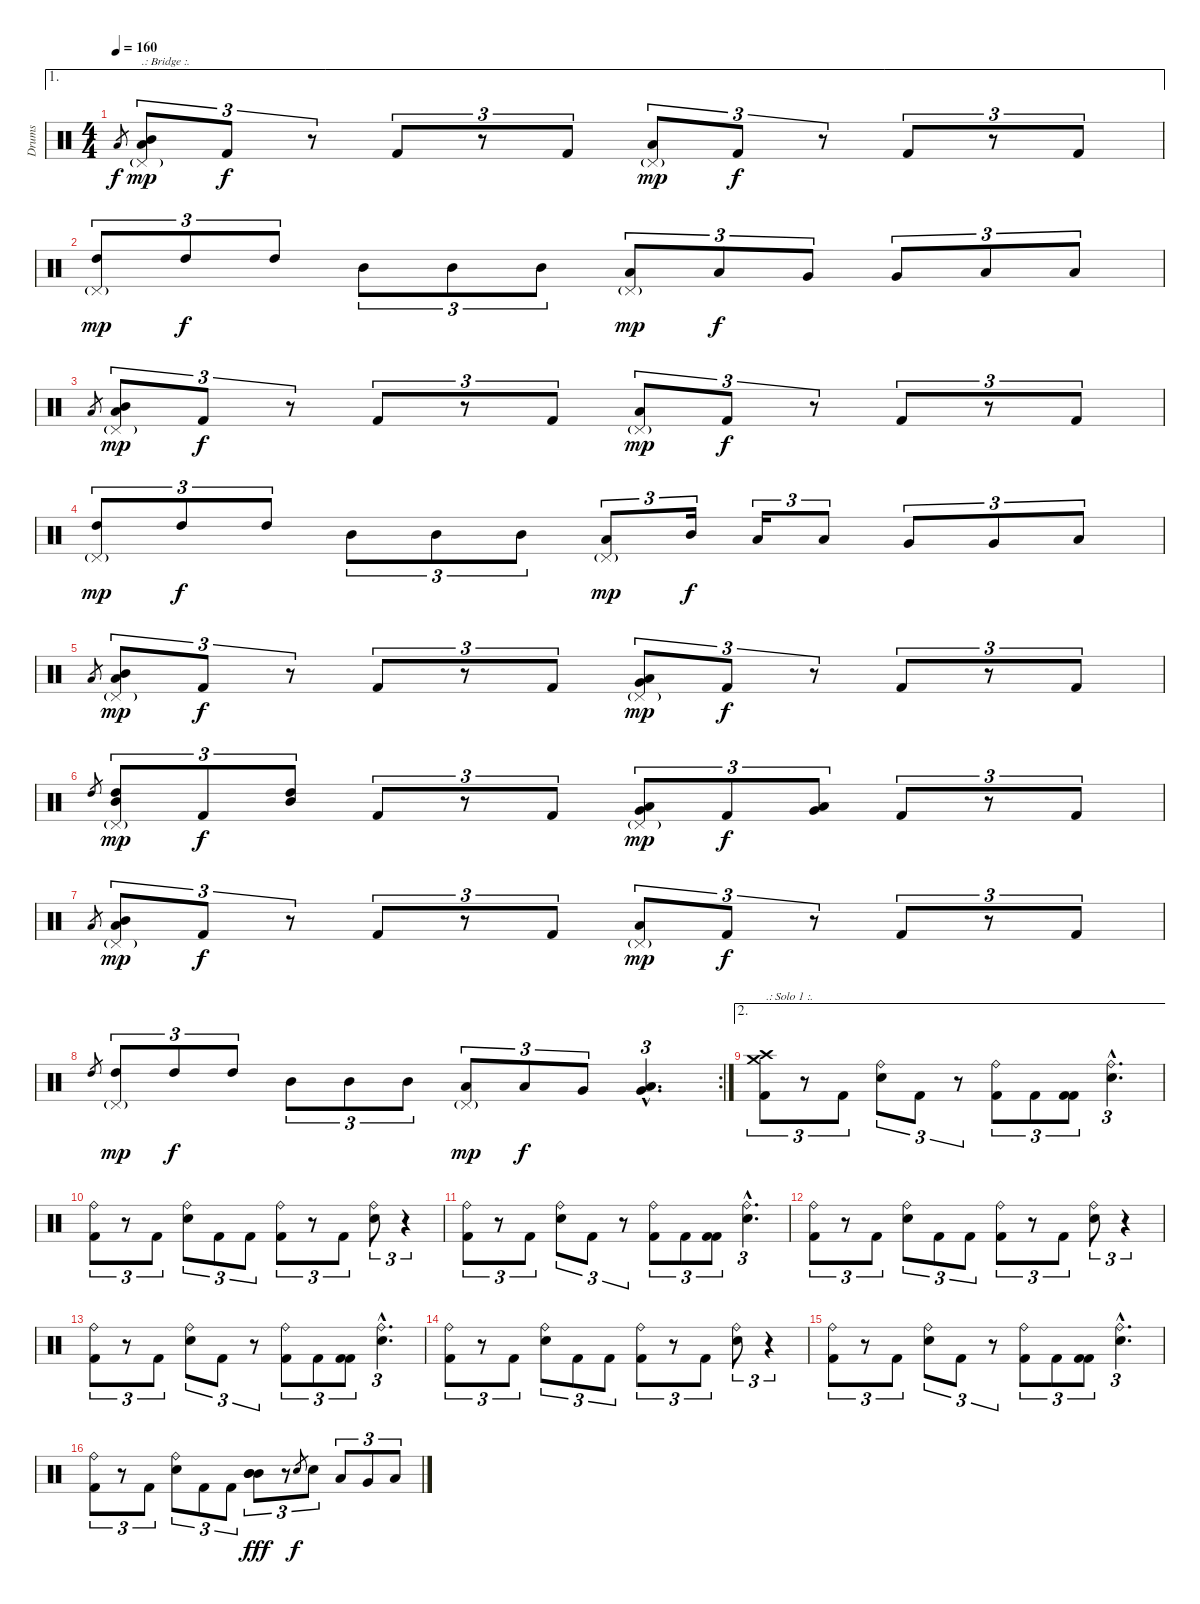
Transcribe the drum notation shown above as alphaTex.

\track ("Drums" "Drums") {instrument percussion}
\staff {score}
\articulation defaults
\ae 1
\ts (4 4)
\tempo 160
\clef neutral
\ks c "Low Tom (hit)".8{gr dy f}
("Mid Tom (hit)" "Low Tom (hit)" "Pedal Hi-Hat (hit)"{g}).8{tu (3 2) txt ".: Bridge :." dy mp} "Kick (hit) 2".8{tu (3 2) dy f} r.8{tu (3 2)} "Kick (hit) 2".8{tu (3 2)} r.8{tu (3 2)} "Kick (hit) 2".8{tu (3 2)} ("Low Tom (hit)" "Pedal Hi-Hat (hit)"{g}).8{tu (3 2) dy mp} "Kick (hit) 2".8{tu (3 2) dy f} r.8{tu (3 2)} "Kick (hit) 2".8{tu (3 2)} r.8{tu (3 2)} "Kick (hit) 2".8{tu (3 2)} |
("High Tom (hit)" "Pedal Hi-Hat (hit)"{g}).8{tu (3 2) dy mp} "High Tom (hit)".8{tu (3 2) dy f} "High Tom (hit)".8{tu (3 2)} "Mid Tom (hit)".8{tu (3 2)} "Mid Tom (hit)".8{tu (3 2)} "Mid Tom (hit)".8{tu (3 2)} ("Low Tom (hit)" "Pedal Hi-Hat (hit)"{g}).8{tu (3 2) dy mp} "Low Tom (hit)".8{tu (3 2) dy f} "Very Low Tom (hit)".8{tu (3 2)} "Very Low Tom (hit)".8{tu (3 2)} "Low Floor Tom (hit)".8{tu (3 2)} "Low Floor Tom (hit)".8{tu (3 2)} |
"Low Tom (hit)".8{gr} ("Mid Tom (hit)" "Low Tom (hit)" "Pedal Hi-Hat (hit)"{g}).8{tu (3 2) dy mp} "Kick (hit) 2".8{tu (3 2) dy f} r.8{tu (3 2)} "Kick (hit) 2".8{tu (3 2)} r.8{tu (3 2)} "Kick (hit) 2".8{tu (3 2)} ("Low Tom (hit)" "Pedal Hi-Hat (hit)"{g}).8{tu (3 2) dy mp} "Kick (hit) 2".8{tu (3 2) dy f} r.8{tu (3 2)} "Kick (hit) 2".8{tu (3 2)} r.8{tu (3 2)} "Kick (hit) 2".8{tu (3 2)} |
("High Tom (hit)" "Pedal Hi-Hat (hit)"{g}).8{tu (3 2) dy mp} "High Tom (hit)".8{tu (3 2) dy f} "High Tom (hit)".8{tu (3 2)} "Mid Tom (hit)".8{tu (3 2)} "Mid Tom (hit)".8{tu (3 2)} "Mid Tom (hit)".8{tu (3 2)} ("Low Tom (hit)" "Pedal Hi-Hat (hit)"{g}).8{tu (3 2) dy mp} "Mid Tom (hit)".16{tu (3 2) dy f} "Low Tom (hit)".16{tu (3 2)} "Low Tom (hit)".8{tu (3 2)} "Very Low Tom (hit)".8{tu (3 2)} "Very Low Tom (hit)".8{tu (3 2)} "Low Floor Tom (hit)".8{tu (3 2)} |
"Low Tom (hit)".8{gr} ("Mid Tom (hit)" "Low Tom (hit)" "Pedal Hi-Hat (hit)"{g}).8{tu (3 2) dy mp} "Kick (hit) 2".8{tu (3 2) dy f} r.8{tu (3 2)} "Kick (hit) 2".8{tu (3 2)} r.8{tu (3 2)} "Kick (hit) 2".8{tu (3 2)} ("Low Tom (hit)" "Very Low Tom (hit)" "Pedal Hi-Hat (hit)"{g}).8{tu (3 2) dy mp} "Kick (hit) 2".8{tu (3 2) dy f} r.8{tu (3 2)} "Kick (hit) 2".8{tu (3 2)} r.8{tu (3 2)} "Kick (hit) 2".8{tu (3 2)} |
"High Tom (hit)".8{gr} ("High Tom (hit)" "Mid Tom (hit)" "Pedal Hi-Hat (hit)"{g}).8{tu (3 2) dy mp} "Kick (hit) 2".8{tu (3 2) dy f} ("High Tom (hit)" "Mid Tom (hit)").8{tu (3 2)} "Kick (hit) 2".8{tu (3 2)} r.8{tu (3 2)} "Kick (hit) 2".8{tu (3 2)} ("Low Tom (hit)" "Very Low Tom (hit)" "Pedal Hi-Hat (hit)"{g}).8{tu (3 2) dy mp} "Kick (hit) 2".8{tu (3 2) dy f} ("Very Low Tom (hit)" "Low Floor Tom (hit)").8{tu (3 2)} "Kick (hit) 2".8{tu (3 2)} r.8{tu (3 2)} "Kick (hit) 2".8{tu (3 2)} |
"Low Tom (hit)".8{gr} ("Mid Tom (hit)" "Low Tom (hit)" "Pedal Hi-Hat (hit)"{g}).8{tu (3 2) dy mp} "Kick (hit) 2".8{tu (3 2) dy f} r.8{tu (3 2)} "Kick (hit) 2".8{tu (3 2)} r.8{tu (3 2)} "Kick (hit) 2".8{tu (3 2)} ("Low Tom (hit)" "Pedal Hi-Hat (hit)"{g}).8{tu (3 2) dy mp} "Kick (hit) 2".8{tu (3 2) dy f} r.8{tu (3 2)} "Kick (hit) 2".8{tu (3 2)} r.8{tu (3 2)} "Kick (hit) 2".8{tu (3 2)} |
\rc 2 "High Tom (hit)".8{gr}
("High Tom (hit)" "Pedal Hi-Hat (hit)"{g}).8{tu (3 2) dy mp} "High Tom (hit)".8{tu (3 2) dy f} "High Tom (hit)".8{tu (3 2)} "Mid Tom (hit)".8{tu (3 2)} "Mid Tom (hit)".8{tu (3 2)} "Mid Tom (hit)".8{tu (3 2)} ("Low Tom (hit)" "Pedal Hi-Hat (hit)"{g}).8{tu (3 2) dy mp} "Low Tom (hit)".8{tu (3 2) dy f} "Very Low Tom (hit)".8{tu (3 2)} ("Very Low Tom (hit)"{hac} "Low Floor Tom (hit)"{hac}).4{d tu (3 2)} |
\ae 2
("Crash medium (hit)" "Crash high (hit)" "Kick (hit) 2").8{tu (3 2) txt ".: Solo 1 :."} r.8{tu (3 2)} "Kick (hit) 2".8{tu (3 2)} ("Ride (bell)" "Electric Snare (hit)").8{tu (3 2)} "Kick (hit) 2".8{tu (3 2)} r.8{tu (3 2)} ("Ride (bell)" "Kick (hit) 2").8{tu (3 2)} "Kick (hit) 2".8{tu (3 2)} ("Kick (hit) 2" "Kick (hit) 2").8{tu (3 2)} ("Ride (bell)"{hac} "Electric Snare (hit)"{hac}).4{d tu (3 2)} |
("Ride (bell)" "Kick (hit) 2").8{tu (3 2)} r.8{tu (3 2)} "Kick (hit) 2".8{tu (3 2)} ("Ride (bell)" "Electric Snare (hit)").8{tu (3 2)} "Kick (hit) 2".8{tu (3 2)} "Kick (hit) 2".8{tu (3 2)} ("Kick (hit) 2" "Ride (bell)").8{tu (3 2)} r.8{tu (3 2)} "Kick (hit) 2".8{tu (3 2)} ("Ride (bell)" "Electric Snare (hit)").8{tu (3 2)} r.4{tu (3 2)} |
("Ride (bell)" "Kick (hit) 2").8{tu (3 2)} r.8{tu (3 2)} "Kick (hit) 2".8{tu (3 2)} ("Ride (bell)" "Electric Snare (hit)").8{tu (3 2)} "Kick (hit) 2".8{tu (3 2)} r.8{tu (3 2)} ("Ride (bell)" "Kick (hit) 2").8{tu (3 2)} "Kick (hit) 2".8{tu (3 2)} ("Kick (hit) 2" "Kick (hit) 2").8{tu (3 2)} ("Ride (bell)"{hac} "Electric Snare (hit)"{hac}).4{d tu (3 2)} |
("Ride (bell)" "Kick (hit) 2").8{tu (3 2)} r.8{tu (3 2)} "Kick (hit) 2".8{tu (3 2)} ("Ride (bell)" "Electric Snare (hit)").8{tu (3 2)} "Kick (hit) 2".8{tu (3 2)} "Kick (hit) 2".8{tu (3 2)} ("Kick (hit) 2" "Ride (bell)").8{tu (3 2)} r.8{tu (3 2)} "Kick (hit) 2".8{tu (3 2)} ("Ride (bell)" "Electric Snare (hit)").8{tu (3 2)} r.4{tu (3 2)} |
("Ride (bell)" "Kick (hit) 2").8{tu (3 2)} r.8{tu (3 2)} "Kick (hit) 2".8{tu (3 2)} ("Ride (bell)" "Electric Snare (hit)").8{tu (3 2)} "Kick (hit) 2".8{tu (3 2)} r.8{tu (3 2)} ("Ride (bell)" "Kick (hit) 2").8{tu (3 2)} "Kick (hit) 2".8{tu (3 2)} ("Kick (hit) 2" "Kick (hit) 2").8{tu (3 2)} ("Ride (bell)"{hac} "Electric Snare (hit)"{hac}).4{d tu (3 2)} |
("Ride (bell)" "Kick (hit) 2").8{tu (3 2)} r.8{tu (3 2)} "Kick (hit) 2".8{tu (3 2)} ("Ride (bell)" "Electric Snare (hit)").8{tu (3 2)} "Kick (hit) 2".8{tu (3 2)} "Kick (hit) 2".8{tu (3 2)} ("Kick (hit) 2" "Ride (bell)").8{tu (3 2)} r.8{tu (3 2)} "Kick (hit) 2".8{tu (3 2)} ("Ride (bell)" "Electric Snare (hit)").8{tu (3 2)} r.4{tu (3 2)} |
("Ride (bell)" "Kick (hit) 2").8{tu (3 2)} r.8{tu (3 2)} "Kick (hit) 2".8{tu (3 2)} ("Ride (bell)" "Electric Snare (hit)").8{tu (3 2)} "Kick (hit) 2".8{tu (3 2)} r.8{tu (3 2)} ("Ride (bell)" "Kick (hit) 2").8{tu (3 2)} "Kick (hit) 2".8{tu (3 2)} ("Kick (hit) 2" "Kick (hit) 2").8{tu (3 2)} ("Ride (bell)"{hac} "Electric Snare (hit)"{hac}).4{d tu (3 2)} |
("Ride (bell)" "Kick (hit) 2").8{tu (3 2)} r.8{tu (3 2)} "Kick (hit) 2".8{tu (3 2)} ("Ride (bell)" "Electric Snare (hit)").8{tu (3 2)} "Kick (hit) 2".8{tu (3 2)} "Kick (hit) 2".8{tu (3 2)} ("Mid Tom (hit)" "Mid Tom (hit)" "Mid Tom (hit)").8{tu (3 2) dy fff} r.8{tu (3 2)} "Electric Snare (hit)".8{gr dy f} "Electric Snare (hit)".8{tu (3 2)} "Low Tom (hit)".8{tu (3 2)} "Very Low Tom (hit)".8{tu (3 2)} "Low Floor Tom (hit)".8{tu (3 2)}
